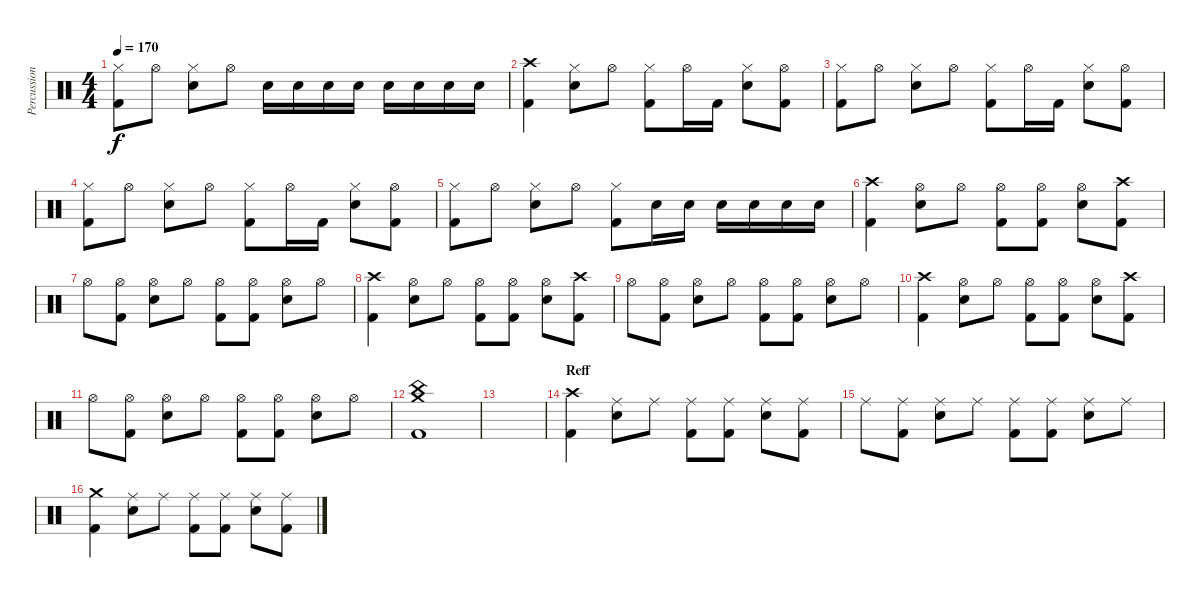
\track ("Percussion" "Percussion") {instrument percussion}
\staff {score}
\articulation defaults
\ts (4 4)
\tempo 170
\clef neutral
\ks c
("Kick (hit) 2" "Hi-Hat (closed)").8{dy f} "Hi-Hat (open)".8 ("Electric Snare (hit)" "Hi-Hat (closed)").8 "Hi-Hat (open)".8 "Electric Snare (hit)".16 "Electric Snare (hit)".16 "Electric Snare (hit)".16 "Electric Snare (hit)".16 "Electric Snare (hit)".16 "Electric Snare (hit)".16 "Electric Snare (hit)".16 "Electric Snare (hit)".16 |
("Kick (hit) 2" "Crash high (hit)").4 ("Electric Snare (hit)" "Hi-Hat (closed)").8 "Hi-Hat (open)".8 ("Kick (hit) 2" "Hi-Hat (closed)").8 "Hi-Hat (open)".16 "Kick (hit) 2".16 ("Electric Snare (hit)" "Hi-Hat (closed)").8 ("Kick (hit) 2" "Hi-Hat (open)").8 |
("Kick (hit) 2" "Hi-Hat (closed)").8 "Hi-Hat (open)".8 ("Electric Snare (hit)" "Hi-Hat (closed)").8 "Hi-Hat (open)".8 ("Kick (hit) 2" "Hi-Hat (closed)").8 "Hi-Hat (open)".16 "Kick (hit) 2".16 ("Electric Snare (hit)" "Hi-Hat (closed)").8 ("Kick (hit) 2" "Hi-Hat (open)").8 |
("Kick (hit) 2" "Hi-Hat (closed)").8 "Hi-Hat (open)".8 ("Electric Snare (hit)" "Hi-Hat (closed)").8 "Hi-Hat (open)".8 ("Kick (hit) 2" "Hi-Hat (closed)").8 "Hi-Hat (open)".16 "Kick (hit) 2".16 ("Electric Snare (hit)" "Hi-Hat (closed)").8 ("Kick (hit) 2" "Hi-Hat (open)").8 |
("Kick (hit) 2" "Hi-Hat (closed)").8 "Hi-Hat (open)".8 ("Electric Snare (hit)" "Hi-Hat (closed)").8 "Hi-Hat (open)".8 ("Kick (hit) 2" "Hi-Hat (closed)").8 "Electric Snare (hit)".16 "Electric Snare (hit)".16 "Electric Snare (hit)".16 "Electric Snare (hit)".16 "Electric Snare (hit)".16 "Electric Snare (hit)".16 |
("Kick (hit) 2" "Crash high (hit)").4 ("Electric Snare (hit)" "Hi-Hat (open)").8 "Hi-Hat (open)".8 ("Kick (hit) 2" "Hi-Hat (open)").8 ("Kick (hit) 2" "Hi-Hat (open)").8 ("Electric Snare (hit)" "Hi-Hat (open)").8 ("Kick (hit) 2" "Crash high (hit)").8 |
"Hi-Hat (open)".8 ("Kick (hit) 2" "Hi-Hat (open)").8 ("Electric Snare (hit)" "Hi-Hat (open)").8 "Hi-Hat (open)".8 ("Kick (hit) 2" "Hi-Hat (open)").8 ("Kick (hit) 2" "Hi-Hat (open)").8 ("Electric Snare (hit)" "Hi-Hat (open)").8 "Hi-Hat (open)".8 |
("Kick (hit) 2" "Crash high (hit)").4 ("Electric Snare (hit)" "Hi-Hat (open)").8 "Hi-Hat (open)".8 ("Kick (hit) 2" "Hi-Hat (open)").8 ("Kick (hit) 2" "Hi-Hat (open)").8 ("Electric Snare (hit)" "Hi-Hat (open)").8 ("Kick (hit) 2" "Crash high (hit)").8 |
"Hi-Hat (open)".8 ("Kick (hit) 2" "Hi-Hat (open)").8 ("Electric Snare (hit)" "Hi-Hat (open)").8 "Hi-Hat (open)".8 ("Kick (hit) 2" "Hi-Hat (open)").8 ("Kick (hit) 2" "Hi-Hat (open)").8 ("Electric Snare (hit)" "Hi-Hat (open)").8 "Hi-Hat (open)".8 |
("Kick (hit) 2" "Crash high (hit)").4 ("Electric Snare (hit)" "Hi-Hat (open)").8 "Hi-Hat (open)".8 ("Kick (hit) 2" "Hi-Hat (open)").8 ("Kick (hit) 2" "Hi-Hat (open)").8 ("Electric Snare (hit)" "Hi-Hat (open)").8 ("Kick (hit) 2" "Crash high (hit)").8 |
"Hi-Hat (open)".8 ("Kick (hit) 2" "Hi-Hat (open)").8 ("Electric Snare (hit)" "Hi-Hat (open)").8 "Hi-Hat (open)".8 ("Kick (hit) 2" "Hi-Hat (open)").8 ("Kick (hit) 2" "Hi-Hat (open)").8 ("Electric Snare (hit)" "Hi-Hat (open)").8 "Hi-Hat (open)".8 |
("Kick (hit) 2" "China (hit)" "Crash medium (hit)").1 |
|
\section ("" "Reff")
("Kick (hit) 2" "Crash high (hit)").4 ("Electric Snare (hit)" "Ride (middle)").8 "Ride (middle)".8 ("Kick (hit) 2" "Ride (middle)").8 ("Kick (hit) 2" "Ride (middle)").8 ("Electric Snare (hit)" "Ride (middle)").8 ("Kick (hit) 2" "Ride (middle)").8 |
"Ride (middle)".8 ("Kick (hit) 2" "Ride (middle)").8 ("Electric Snare (hit)" "Ride (middle)").8 "Ride (middle)".8 ("Kick (hit) 2" "Ride (middle)").8 ("Kick (hit) 2" "Ride (middle)").8 ("Electric Snare (hit)" "Ride (middle)").8 "Ride (middle)".8 |
("Kick (hit) 2" "Crash medium (hit)").4 ("Electric Snare (hit)" "Ride (middle)").8 "Ride (middle)".8 ("Kick (hit) 2" "Ride (middle)").8 ("Kick (hit) 2" "Ride (middle)").8 ("Electric Snare (hit)" "Ride (middle)").8 ("Kick (hit) 2" "Ride (middle)").8
